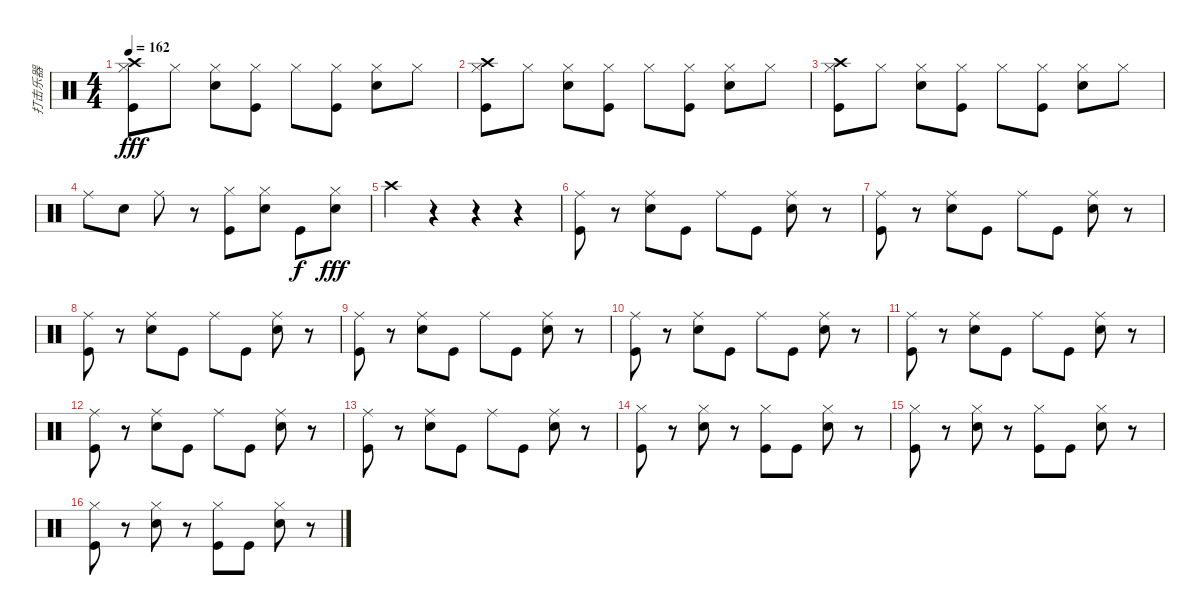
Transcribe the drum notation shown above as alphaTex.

\track ("打击乐器" "打击乐器") {instrument percussion}
\staff {score}
\articulation defaults
\ts (4 4)
\tempo 162
\clef neutral
\ks c
("Hi-Hat (closed)" "Kick (hit)" "Crash high (hit)").8{dy fff} "Hi-Hat (closed)".8 ("Hi-Hat (closed)" "Snare (hit) 2").8 ("Hi-Hat (closed)" "Kick (hit)").8 "Hi-Hat (closed)".8 ("Hi-Hat (closed)" "Kick (hit)").8 ("Hi-Hat (closed)" "Snare (hit) 2").8 "Hi-Hat (closed)".8 |
("Hi-Hat (closed)" "Kick (hit)" "Crash high (hit)").8 "Hi-Hat (closed)".8 ("Hi-Hat (closed)" "Snare (hit) 2").8 ("Hi-Hat (closed)" "Kick (hit)").8 "Hi-Hat (closed)".8 ("Hi-Hat (closed)" "Kick (hit)").8 ("Hi-Hat (closed)" "Snare (hit) 2").8 "Hi-Hat (closed)".8 |
("Hi-Hat (closed)" "Kick (hit)" "Crash high (hit)").8 "Hi-Hat (closed)".8 ("Hi-Hat (closed)" "Snare (hit) 2").8 ("Hi-Hat (closed)" "Kick (hit)").8 "Hi-Hat (closed)".8 ("Hi-Hat (closed)" "Kick (hit)").8 ("Hi-Hat (closed)" "Snare (hit) 2").8 "Hi-Hat (closed)".8 |
"Ride (middle)".8 "Snare (hit) 2".8 "Ride (middle)".8 r.8 ("Hi-Hat (closed)" "Kick (hit)").8 ("Hi-Hat (closed)" "Snare (hit) 2").8 "Kick (hit)".8{dy f} ("Hi-Hat (closed)" "Snare (hit) 2").8{dy fff} |
"Crash high (hit)".4 r.4 r.4 r.4 |
("Ride (middle)" "Kick (hit)").8 r.8 ("Ride (middle)" "Snare (hit) 2").8 "Kick (hit)".8 "Ride (middle)".8 "Kick (hit)".8 ("Ride (middle)" "Snare (hit) 2").8 r.8 |
("Ride (middle)" "Kick (hit)").8 r.8 ("Ride (middle)" "Snare (hit) 2").8 "Kick (hit)".8 "Ride (middle)".8 "Kick (hit)".8 ("Ride (middle)" "Snare (hit) 2").8 r.8 |
("Ride (middle)" "Kick (hit)").8 r.8 ("Ride (middle)" "Snare (hit) 2").8 "Kick (hit)".8 "Ride (middle)".8 "Kick (hit)".8 ("Ride (middle)" "Snare (hit) 2").8 r.8 |
("Ride (middle)" "Kick (hit)").8 r.8 ("Ride (middle)" "Snare (hit) 2").8 "Kick (hit)".8 "Ride (middle)".8 "Kick (hit)".8 ("Ride (middle)" "Snare (hit) 2").8 r.8 |
("Ride (middle)" "Kick (hit)").8 r.8 ("Ride (middle)" "Snare (hit) 2").8 "Kick (hit)".8 "Ride (middle)".8 "Kick (hit)".8 ("Ride (middle)" "Snare (hit) 2").8 r.8 |
("Ride (middle)" "Kick (hit)").8 r.8 ("Ride (middle)" "Snare (hit) 2").8 "Kick (hit)".8 "Ride (middle)".8 "Kick (hit)".8 ("Ride (middle)" "Snare (hit) 2").8 r.8 |
("Ride (middle)" "Kick (hit)").8 r.8 ("Ride (middle)" "Snare (hit) 2").8 "Kick (hit)".8 "Ride (middle)".8 "Kick (hit)".8 ("Ride (middle)" "Snare (hit) 2").8 r.8 |
("Ride (middle)" "Kick (hit)").8 r.8 ("Ride (middle)" "Snare (hit) 2").8 "Kick (hit)".8 "Ride (middle)".8 "Kick (hit)".8 ("Ride (middle)" "Snare (hit) 2").8 r.8 |
("Hi-Hat (closed)" "Kick (hit)").8 r.8 ("Hi-Hat (closed)" "Snare (hit) 2").8 r.8 ("Hi-Hat (closed)" "Kick (hit)").8 "Kick (hit)".8 ("Hi-Hat (closed)" "Snare (hit) 2").8 r.8 |
("Hi-Hat (closed)" "Kick (hit)").8 r.8 ("Hi-Hat (closed)" "Snare (hit) 2").8 r.8 ("Hi-Hat (closed)" "Kick (hit)").8 "Kick (hit)".8 ("Hi-Hat (closed)" "Snare (hit) 2").8 r.8 |
("Hi-Hat (closed)" "Kick (hit)").8 r.8 ("Hi-Hat (closed)" "Snare (hit) 2").8 r.8 ("Hi-Hat (closed)" "Kick (hit)").8 "Kick (hit)".8 ("Hi-Hat (closed)" "Snare (hit) 2").8 r.8
